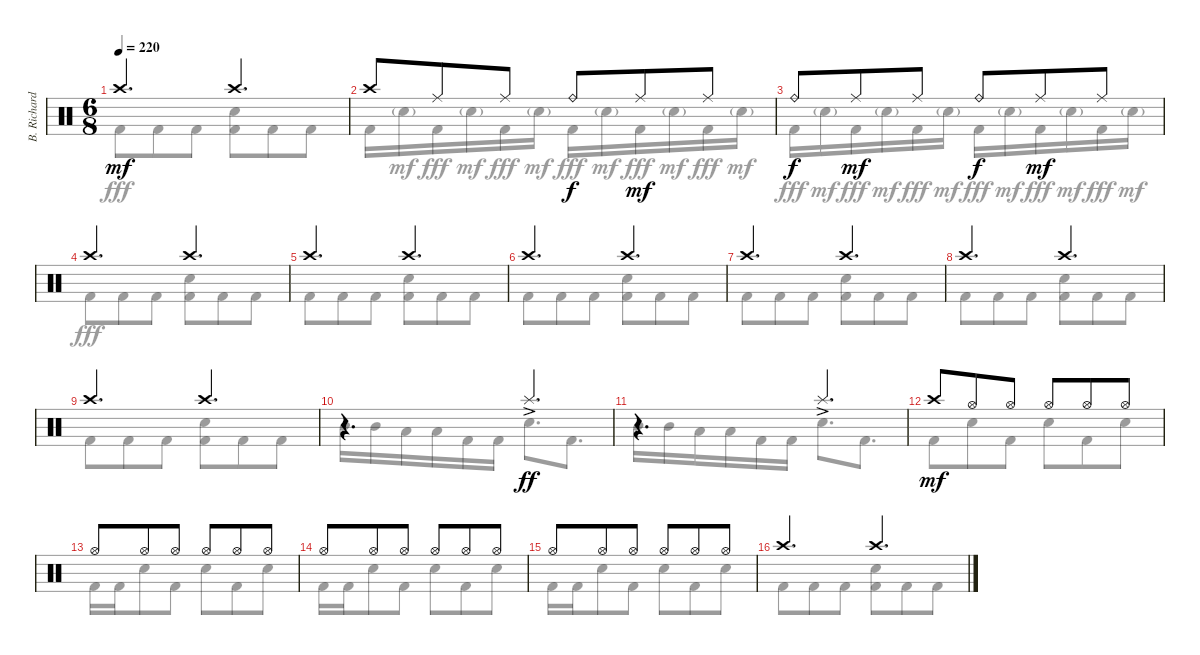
\track ("B. Richardson Drums" "B. Richard") {instrument percussion}
\staff {score}
\articulation defaults
\voice
\ts (6 8)
\tempo 220
\clef neutral
\ks c "Crash high (hit)".4{d dy mf} "Crash high (hit)".4{d}
|
"Crash high (hit)".8 "Ride (middle)".8 "Ride (middle)".8 "Ride (bell)".8{dy f} "Ride (middle)".8{dy mf} "Ride (middle)".8 |
"Ride (bell)".8{dy f} "Ride (middle)".8{dy mf} "Ride (middle)".8 "Ride (bell)".8{dy f} "Ride (middle)".8{dy mf} "Ride (middle)".8 |
"Crash high (hit)".4{d} "Crash high (hit)".4{d} |
"Crash high (hit)".4{d} "Crash high (hit)".4{d} |
"Crash high (hit)".4{d} "Crash high (hit)".4{d} |
"Crash high (hit)".4{d} "Crash high (hit)".4{d} |
"Crash high (hit)".4{d} "Crash high (hit)".4{d} |
"Crash high (hit)".4{d} "Crash high (hit)".4{d} |
r.4{d} "Splash (hit)"{ac}.4{d dy ff} |
r.4{d} "Splash (hit)"{ac}.4{d} |
"Crash high (hit)".8{dy mf} "Hi-Hat (open)".8 "Hi-Hat (open)".8 "Hi-Hat (open)".8 "Hi-Hat (open)".8 "Hi-Hat (open)".8 |
"Hi-Hat (open)".8 "Hi-Hat (open)".8 "Hi-Hat (open)".8 "Hi-Hat (open)".8 "Hi-Hat (open)".8 "Hi-Hat (open)".8 |
"Hi-Hat (open)".8 "Hi-Hat (open)".8 "Hi-Hat (open)".8 "Hi-Hat (open)".8 "Hi-Hat (open)".8 "Hi-Hat (open)".8 |
"Hi-Hat (open)".8 "Hi-Hat (open)".8 "Hi-Hat (open)".8 "Hi-Hat (open)".8 "Hi-Hat (open)".8 "Hi-Hat (open)".8 |
"Crash high (hit)".4{d} "Crash high (hit)".4{d}
\voice
\clef neutral
\ottava regular
\simile none
\ks c "Kick (hit) 2".8{dy fff} "Kick (hit) 2".8 "Kick (hit) 2".8
("Electric Snare (hit)" "Kick (hit) 2").8 "Kick (hit) 2".8 "Kick (hit) 2".8 |
"Kick (hit) 2".16 "Electric Snare (hit)"{g}.16{dy mf} "Kick (hit) 2".16{dy fff} "Electric Snare (hit)"{g}.16{dy mf} "Kick (hit) 2".16{dy fff} "Electric Snare (hit)"{g}.16{dy mf} "Kick (hit) 2".16{dy fff} "Electric Snare (hit)"{g}.16{dy mf} "Kick (hit) 2".16{dy fff} "Electric Snare (hit)"{g}.16{dy mf} "Kick (hit) 2".16{dy fff} "Electric Snare (hit)"{g}.16{dy mf} |
"Kick (hit) 2".16{dy fff} "Electric Snare (hit)"{g}.16{dy mf} "Kick (hit) 2".16{dy fff} "Electric Snare (hit)"{g}.16{dy mf} "Kick (hit) 2".16{dy fff} "Electric Snare (hit)"{g}.16{dy mf} "Kick (hit) 2".16{dy fff} "Electric Snare (hit)"{g}.16{dy mf} "Kick (hit) 2".16{dy fff} "Electric Snare (hit)"{g}.16{dy mf} "Kick (hit) 2".16{dy fff} "Electric Snare (hit)"{g}.16{dy mf} |
"Kick (hit) 2".8{dy fff} "Kick (hit) 2".8 "Kick (hit) 2".8 ("Electric Snare (hit)" "Kick (hit) 2").8 "Kick (hit) 2".8 "Kick (hit) 2".8 |
"Kick (hit) 2".8 "Kick (hit) 2".8 "Kick (hit) 2".8 ("Electric Snare (hit)" "Kick (hit) 2").8 "Kick (hit) 2".8 "Kick (hit) 2".8 |
"Kick (hit) 2".8 "Kick (hit) 2".8 "Kick (hit) 2".8 ("Electric Snare (hit)" "Kick (hit) 2").8 "Kick (hit) 2".8 "Kick (hit) 2".8 |
"Kick (hit) 2".8 "Kick (hit) 2".8 "Kick (hit) 2".8 ("Electric Snare (hit)" "Kick (hit) 2").8 "Kick (hit) 2".8 "Kick (hit) 2".8 |
"Kick (hit) 2".8 "Kick (hit) 2".8 "Kick (hit) 2".8 ("Electric Snare (hit)" "Kick (hit) 2").8 "Kick (hit) 2".8 "Kick (hit) 2".8 |
"Kick (hit) 2".8 "Kick (hit) 2".8 "Kick (hit) 2".8 ("Electric Snare (hit)" "Kick (hit) 2").8 "Kick (hit) 2".8 "Kick (hit) 2".8 |
"Mid Tom (hit)".16 "Mid Tom (hit)".16 "Low Tom (hit)".16 "Low Tom (hit)".16 "Kick (hit) 2".16 "Kick (hit) 2".16 "Electric Snare (hit)".8{d} "Kick (hit) 2".8{d} |
"Mid Tom (hit)".16 "Mid Tom (hit)".16 "Low Tom (hit)".16 "Low Tom (hit)".16 "Kick (hit) 2".16 "Kick (hit) 2".16 "Electric Snare (hit)".8{d} "Kick (hit) 2".8{d} |
"Kick (hit) 2".8 "Electric Snare (hit)".8 "Kick (hit) 2".8 "Electric Snare (hit)".8 "Kick (hit) 2".8 "Electric Snare (hit)".8 |
"Kick (hit) 2".16 "Kick (hit) 2".16 "Electric Snare (hit)".8 "Kick (hit) 2".8 "Electric Snare (hit)".8 "Kick (hit) 2".8 "Electric Snare (hit)".8 |
"Kick (hit) 2".16 "Kick (hit) 2".16 "Electric Snare (hit)".8 "Kick (hit) 2".8 "Electric Snare (hit)".8 "Kick (hit) 2".8 "Electric Snare (hit)".8 |
"Kick (hit) 2".16 "Kick (hit) 2".16 "Electric Snare (hit)".8 "Kick (hit) 2".8 "Electric Snare (hit)".8 "Kick (hit) 2".8 "Electric Snare (hit)".8 |
"Kick (hit) 2".8 "Kick (hit) 2".8 "Kick (hit) 2".8 ("Electric Snare (hit)" "Kick (hit) 2").8 "Kick (hit) 2".8 "Kick (hit) 2".8
